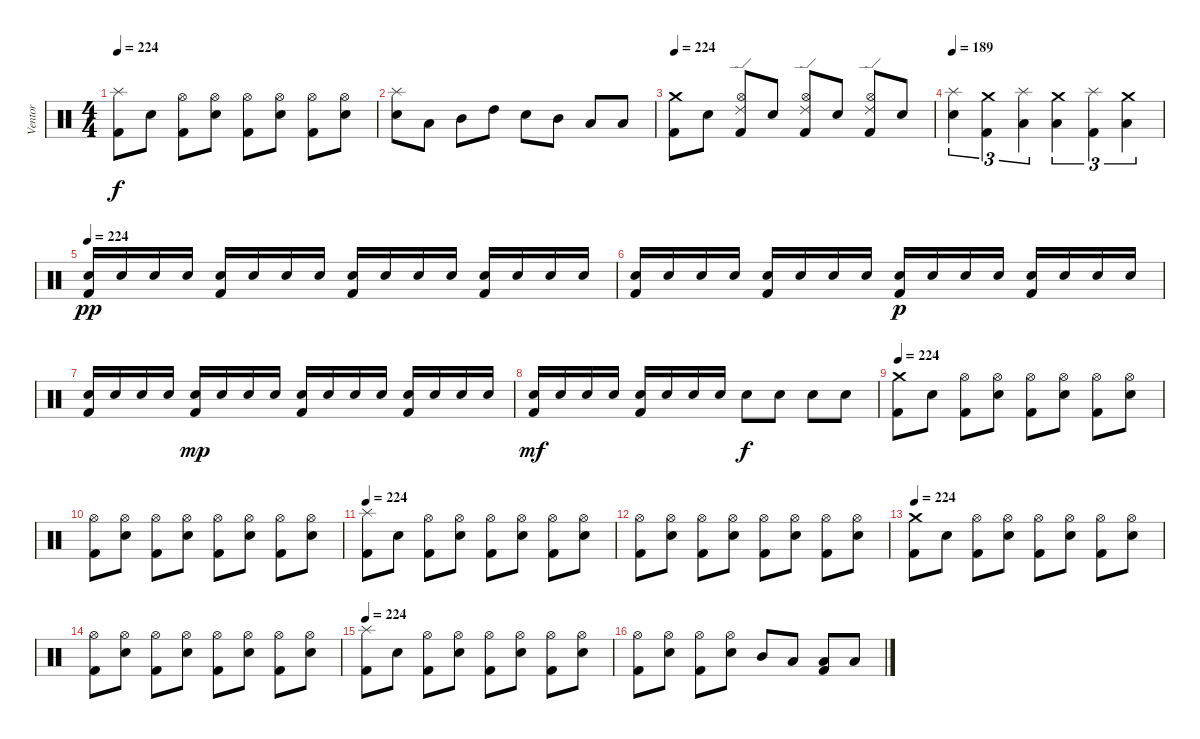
\track ("Ventor" "Ventor") {instrument percussion}
\staff {score}
\articulation defaults
\ts (4 4)
\tempo 224
\clef neutral
\ks c
("Splash (hit)" "Kick (hit) 2").8{dy f} "Electric Snare (hit)".8 ("Hi-Hat (open)" "Kick (hit) 2").8 ("Hi-Hat (open)" "Electric Snare (hit)").8 ("Hi-Hat (open)" "Kick (hit) 2").8 ("Hi-Hat (open)" "Electric Snare (hit)").8 ("Hi-Hat (open)" "Kick (hit) 2").8 ("Hi-Hat (open)" "Electric Snare (hit)").8 |
("Splash (hit)" "Electric Snare (hit)").8 "Low Tom (hit)".8 "Mid Tom (hit)".8 "High Tom (hit)".8 "Electric Snare (hit)".8 "Mid Tom (hit)".8 "Low Tom (hit)".8 "Low Floor Tom (hit)".8 |
\tempo 224
("Crash medium (hit)" "Kick (hit) 2").8 "Electric Snare (hit)".8 ("Ride (edge) 2" "Hi-Hat (open)" "Kick (hit) 2").8 "Electric Snare (hit)".8 ("Ride (edge) 2" "Hi-Hat (open)" "Kick (hit) 2").8 "Electric Snare (hit)".8 ("Ride (edge) 2" "Hi-Hat (open)" "Kick (hit) 2").8 "Electric Snare (hit)".8 |
\tempo 189
("Splash (hit)" "Electric Snare (hit)").4{tu (3 2)} ("Crash medium (hit)" "Kick (hit) 2").4{tu (3 2)} ("Splash (hit)" "Low Tom (hit)").4{tu (3 2)} ("Crash medium (hit)" "Low Floor Tom (hit)").4{tu (3 2)} ("Splash (hit)" "Kick (hit) 2").4{tu (3 2)} ("Crash medium (hit)" "Low Floor Tom (hit)").4{tu (3 2)} |
\tempo 224
("Electric Snare (hit)" "Kick (hit) 2").16{dy pp} "Electric Snare (hit)".16 "Electric Snare (hit)".16 "Electric Snare (hit)".16 ("Electric Snare (hit)" "Kick (hit) 2").16 "Electric Snare (hit)".16 "Electric Snare (hit)".16 "Electric Snare (hit)".16 ("Electric Snare (hit)" "Kick (hit) 2").16 "Electric Snare (hit)".16 "Electric Snare (hit)".16 "Electric Snare (hit)".16 ("Electric Snare (hit)" "Kick (hit) 2").16 "Electric Snare (hit)".16 "Electric Snare (hit)".16 "Electric Snare (hit)".16 |
("Electric Snare (hit)" "Kick (hit) 2").16 "Electric Snare (hit)".16 "Electric Snare (hit)".16 "Electric Snare (hit)".16 ("Electric Snare (hit)" "Kick (hit) 2").16 "Electric Snare (hit)".16 "Electric Snare (hit)".16 "Electric Snare (hit)".16 ("Electric Snare (hit)" "Kick (hit) 2").16{dy p} "Electric Snare (hit)".16 "Electric Snare (hit)".16 "Electric Snare (hit)".16 ("Electric Snare (hit)" "Kick (hit) 2").16 "Electric Snare (hit)".16 "Electric Snare (hit)".16 "Electric Snare (hit)".16 |
("Electric Snare (hit)" "Kick (hit) 2").16 "Electric Snare (hit)".16 "Electric Snare (hit)".16 "Electric Snare (hit)".16 ("Electric Snare (hit)" "Kick (hit) 2").16{dy mp} "Electric Snare (hit)".16 "Electric Snare (hit)".16 "Electric Snare (hit)".16 ("Electric Snare (hit)" "Kick (hit) 2").16 "Electric Snare (hit)".16 "Electric Snare (hit)".16 "Electric Snare (hit)".16 ("Electric Snare (hit)" "Kick (hit) 2").16 "Electric Snare (hit)".16 "Electric Snare (hit)".16 "Electric Snare (hit)".16 |
("Electric Snare (hit)" "Kick (hit) 2").16{dy mf} "Electric Snare (hit)".16 "Electric Snare (hit)".16 "Electric Snare (hit)".16 ("Electric Snare (hit)" "Kick (hit) 2").16 "Electric Snare (hit)".16 "Electric Snare (hit)".16 "Electric Snare (hit)".16 "Electric Snare (hit)".8{dy f} "Electric Snare (hit)".8 "Electric Snare (hit)".8 "Electric Snare (hit)".8 |
\tempo 224
("Crash medium (hit)" "Kick (hit) 2").8 "Electric Snare (hit)".8 ("Hi-Hat (open)" "Kick (hit) 2").8 ("Hi-Hat (open)" "Electric Snare (hit)").8 ("Hi-Hat (open)" "Kick (hit) 2").8 ("Hi-Hat (open)" "Electric Snare (hit)").8 ("Hi-Hat (open)" "Kick (hit) 2").8 ("Hi-Hat (open)" "Electric Snare (hit)").8 |
("Hi-Hat (open)" "Kick (hit) 2").8 ("Hi-Hat (open)" "Electric Snare (hit)").8 ("Hi-Hat (open)" "Kick (hit) 2").8 ("Hi-Hat (open)" "Electric Snare (hit)").8 ("Hi-Hat (open)" "Kick (hit) 2").8 ("Hi-Hat (open)" "Electric Snare (hit)").8 ("Hi-Hat (open)" "Kick (hit) 2").8 ("Hi-Hat (open)" "Electric Snare (hit)").8 |
\tempo 224
("Splash (hit)" "Kick (hit) 2").8 "Electric Snare (hit)".8 ("Hi-Hat (open)" "Kick (hit) 2").8 ("Hi-Hat (open)" "Electric Snare (hit)").8 ("Hi-Hat (open)" "Kick (hit) 2").8 ("Hi-Hat (open)" "Electric Snare (hit)").8 ("Hi-Hat (open)" "Kick (hit) 2").8 ("Hi-Hat (open)" "Electric Snare (hit)").8 |
("Hi-Hat (open)" "Kick (hit) 2").8 ("Hi-Hat (open)" "Electric Snare (hit)").8 ("Hi-Hat (open)" "Kick (hit) 2").8 ("Hi-Hat (open)" "Electric Snare (hit)").8 ("Hi-Hat (open)" "Kick (hit) 2").8 ("Hi-Hat (open)" "Electric Snare (hit)").8 ("Hi-Hat (open)" "Kick (hit) 2").8 ("Hi-Hat (open)" "Electric Snare (hit)").8 |
\tempo 224
("Crash medium (hit)" "Kick (hit) 2").8 "Electric Snare (hit)".8 ("Hi-Hat (open)" "Kick (hit) 2").8 ("Hi-Hat (open)" "Electric Snare (hit)").8 ("Hi-Hat (open)" "Kick (hit) 2").8 ("Hi-Hat (open)" "Electric Snare (hit)").8 ("Hi-Hat (open)" "Kick (hit) 2").8 ("Hi-Hat (open)" "Electric Snare (hit)").8 |
("Hi-Hat (open)" "Kick (hit) 2").8 ("Hi-Hat (open)" "Electric Snare (hit)").8 ("Hi-Hat (open)" "Kick (hit) 2").8 ("Hi-Hat (open)" "Electric Snare (hit)").8 ("Hi-Hat (open)" "Kick (hit) 2").8 ("Hi-Hat (open)" "Electric Snare (hit)").8 ("Hi-Hat (open)" "Kick (hit) 2").8 ("Hi-Hat (open)" "Electric Snare (hit)").8 |
\tempo 224
("Splash (hit)" "Kick (hit) 2").8 "Electric Snare (hit)".8 ("Hi-Hat (open)" "Kick (hit) 2").8 ("Hi-Hat (open)" "Electric Snare (hit)").8 ("Hi-Hat (open)" "Kick (hit) 2").8 ("Hi-Hat (open)" "Electric Snare (hit)").8 ("Hi-Hat (open)" "Kick (hit) 2").8 ("Hi-Hat (open)" "Electric Snare (hit)").8 |
("Hi-Hat (open)" "Kick (hit) 2").8 ("Hi-Hat (open)" "Electric Snare (hit)").8 ("Hi-Hat (open)" "Kick (hit) 2").8 ("Hi-Hat (open)" "Electric Snare (hit)").8 "Mid Tom (hit)".8 "Low Tom (hit)".8 ("Low Floor Tom (hit)" "Kick (hit) 2").8 "Low Floor Tom (hit)".8
